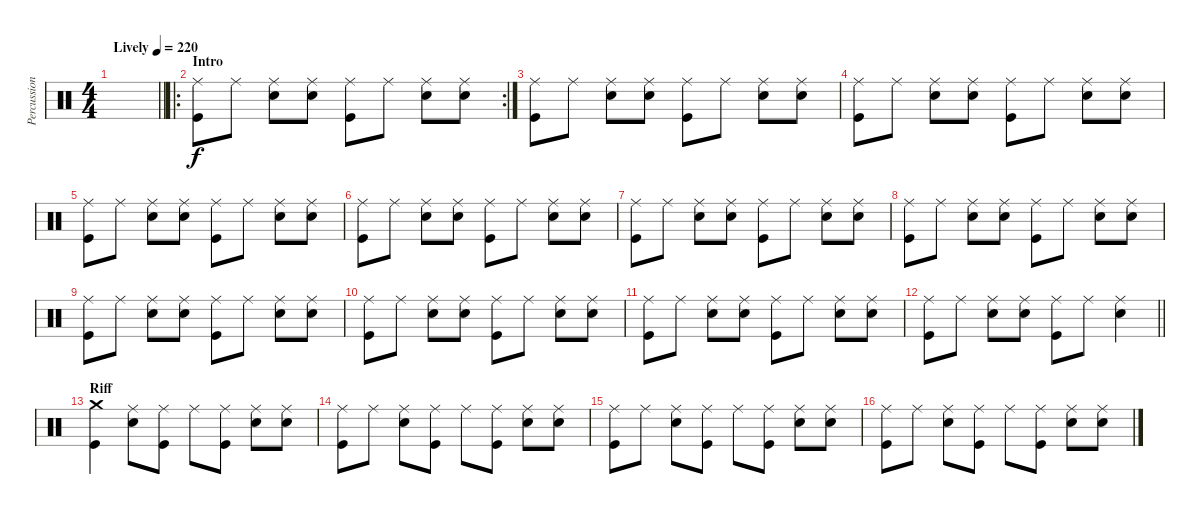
\track ("Percussion" "Percussion") {instrument percussion}
\staff {score}
\articulation defaults
\ts (4 4)
\tempo (220 "Lively")
\clef neutral
\barLineRight lightlight
\ks c
|
\ro
\rc 2
\section ("" "Intro")
("Kick (hit)" "Ride (middle)").8 "Ride (middle)".8 ("Ride (middle)" "Snare (hit) 2").8 ("Ride (middle)" "Snare (hit) 2").8 ("Kick (hit)" "Ride (middle)").8 "Ride (middle)".8 ("Ride (middle)" "Snare (hit) 2").8 ("Ride (middle)" "Snare (hit) 2").8 |
("Kick (hit)" "Ride (middle)").8 "Ride (middle)".8 ("Ride (middle)" "Snare (hit) 2").8 ("Ride (middle)" "Snare (hit) 2").8 ("Kick (hit)" "Ride (middle)").8 "Ride (middle)".8 ("Ride (middle)" "Snare (hit) 2").8 ("Ride (middle)" "Snare (hit) 2").8 |
("Kick (hit)" "Ride (middle)").8 "Ride (middle)".8 ("Ride (middle)" "Snare (hit) 2").8 ("Ride (middle)" "Snare (hit) 2").8 ("Kick (hit)" "Ride (middle)").8 "Ride (middle)".8 ("Ride (middle)" "Snare (hit) 2").8 ("Ride (middle)" "Snare (hit) 2").8 |
("Kick (hit)" "Ride (middle)").8 "Ride (middle)".8 ("Ride (middle)" "Snare (hit) 2").8 ("Ride (middle)" "Snare (hit) 2").8 ("Kick (hit)" "Ride (middle)").8 "Ride (middle)".8 ("Ride (middle)" "Snare (hit) 2").8 ("Ride (middle)" "Snare (hit) 2").8 |
("Kick (hit)" "Ride (middle)").8 "Ride (middle)".8 ("Ride (middle)" "Snare (hit) 2").8 ("Ride (middle)" "Snare (hit) 2").8 ("Kick (hit)" "Ride (middle)").8 "Ride (middle)".8 ("Ride (middle)" "Snare (hit) 2").8 ("Ride (middle)" "Snare (hit) 2").8 |
("Kick (hit)" "Ride (middle)").8 "Ride (middle)".8 ("Ride (middle)" "Snare (hit) 2").8 ("Ride (middle)" "Snare (hit) 2").8 ("Kick (hit)" "Ride (middle)").8 "Ride (middle)".8 ("Ride (middle)" "Snare (hit) 2").8 ("Ride (middle)" "Snare (hit) 2").8 |
("Kick (hit)" "Ride (middle)").8 "Ride (middle)".8 ("Ride (middle)" "Snare (hit) 2").8 ("Ride (middle)" "Snare (hit) 2").8 ("Kick (hit)" "Ride (middle)").8 "Ride (middle)".8 ("Ride (middle)" "Snare (hit) 2").8 ("Ride (middle)" "Snare (hit) 2").8 |
("Kick (hit)" "Ride (middle)").8 "Ride (middle)".8 ("Ride (middle)" "Snare (hit) 2").8 ("Ride (middle)" "Snare (hit) 2").8 ("Kick (hit)" "Ride (middle)").8 "Ride (middle)".8 ("Ride (middle)" "Snare (hit) 2").8 ("Ride (middle)" "Snare (hit) 2").8 |
("Kick (hit)" "Ride (middle)").8 "Ride (middle)".8 ("Ride (middle)" "Snare (hit) 2").8 ("Ride (middle)" "Snare (hit) 2").8 ("Kick (hit)" "Ride (middle)").8 "Ride (middle)".8 ("Ride (middle)" "Snare (hit) 2").8 ("Ride (middle)" "Snare (hit) 2").8 |
("Kick (hit)" "Ride (middle)").8 "Ride (middle)".8 ("Ride (middle)" "Snare (hit) 2").8 ("Ride (middle)" "Snare (hit) 2").8 ("Kick (hit)" "Ride (middle)").8 "Ride (middle)".8 ("Ride (middle)" "Snare (hit) 2").8 ("Ride (middle)" "Snare (hit) 2").8 |
\barLineRight lightlight
("Kick (hit)" "Ride (middle)").8 "Ride (middle)".8 ("Ride (middle)" "Snare (hit) 2").8 ("Ride (middle)" "Snare (hit) 2").8 ("Kick (hit)" "Ride (middle)").8 "Ride (middle)".8 ("Ride (middle)" "Snare (hit) 2").4 |
\section ("" "Riff")
("Kick (hit)" "Crash medium (hit)").4 ("Ride (middle)" "Snare (hit) 2").8 ("Kick (hit)" "Ride (middle)").8 "Ride (middle)".8 ("Kick (hit)" "Ride (middle)").8 ("Ride (middle)" "Snare (hit) 2").8 ("Ride (middle)" "Snare (hit) 2").8 |
("Kick (hit)" "Ride (middle)").8 "Ride (middle)".8 ("Ride (middle)" "Snare (hit) 2").8 ("Kick (hit)" "Ride (middle)").8 "Ride (middle)".8 ("Kick (hit)" "Ride (middle)").8 ("Ride (middle)" "Snare (hit) 2").8 ("Ride (middle)" "Snare (hit) 2").8 |
("Kick (hit)" "Ride (middle)").8 "Ride (middle)".8 ("Ride (middle)" "Snare (hit) 2").8 ("Kick (hit)" "Ride (middle)").8 "Ride (middle)".8 ("Kick (hit)" "Ride (middle)").8 ("Ride (middle)" "Snare (hit) 2").8 ("Ride (middle)" "Snare (hit) 2").8 |
("Kick (hit)" "Ride (middle)").8 "Ride (middle)".8 ("Ride (middle)" "Snare (hit) 2").8 ("Kick (hit)" "Ride (middle)").8 "Ride (middle)".8 ("Kick (hit)" "Ride (middle)").8 ("Ride (middle)" "Snare (hit) 2").8 ("Ride (middle)" "Snare (hit) 2").8
